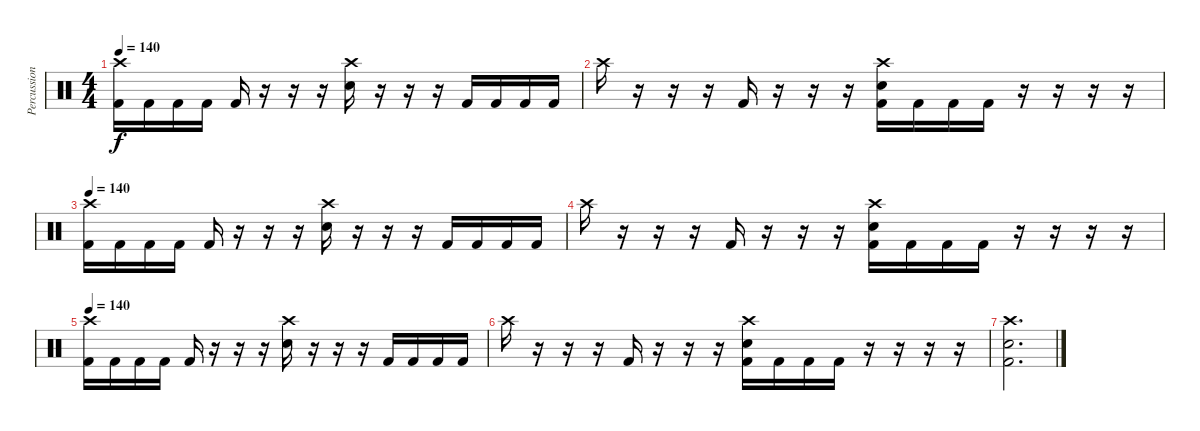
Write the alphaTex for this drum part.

\track ("Percussion" "Percussion") {instrument percussion}
\staff {score}
\articulation defaults
\ts (4 4)
\tempo 140
\clef neutral
\ks c
("Crash high (hit)" "Kick (hit) 2").16{dy f} "Kick (hit) 2".16 "Kick (hit) 2".16 "Kick (hit) 2".16 "Kick (hit) 2".16 r.16 r.16 r.16 ("Crash high (hit)" "Snare (hit) 2").16 r.16 r.16 r.16 "Kick (hit) 2".16 "Kick (hit) 2".16 "Kick (hit) 2".16 "Kick (hit) 2".16 |
"Crash high (hit)".16 r.16 r.16 r.16 "Kick (hit) 2".16 r.16 r.16 r.16 ("Crash high (hit)" "Snare (hit) 2" "Kick (hit) 2").16 "Kick (hit) 2".16 "Kick (hit) 2".16 "Kick (hit) 2".16 r.16 r.16 r.16 r.16 |
\tempo 140
("Crash high (hit)" "Kick (hit) 2").16 "Kick (hit) 2".16 "Kick (hit) 2".16 "Kick (hit) 2".16 "Kick (hit) 2".16 r.16 r.16 r.16 ("Crash high (hit)" "Snare (hit) 2").16 r.16 r.16 r.16 "Kick (hit) 2".16 "Kick (hit) 2".16 "Kick (hit) 2".16 "Kick (hit) 2".16 |
"Crash high (hit)".16 r.16 r.16 r.16 "Kick (hit) 2".16 r.16 r.16 r.16 ("Crash high (hit)" "Snare (hit) 2" "Kick (hit) 2").16 "Kick (hit) 2".16 "Kick (hit) 2".16 "Kick (hit) 2".16 r.16 r.16 r.16 r.16 |
\tempo 140
("Crash high (hit)" "Kick (hit) 2").16 "Kick (hit) 2".16 "Kick (hit) 2".16 "Kick (hit) 2".16 "Kick (hit) 2".16 r.16 r.16 r.16 ("Crash high (hit)" "Snare (hit) 2").16 r.16 r.16 r.16 "Kick (hit) 2".16 "Kick (hit) 2".16 "Kick (hit) 2".16 "Kick (hit) 2".16 |
"Crash high (hit)".16 r.16 r.16 r.16 "Kick (hit) 2".16 r.16 r.16 r.16 ("Crash high (hit)" "Snare (hit) 2" "Kick (hit) 2").16 "Kick (hit) 2".16 "Kick (hit) 2".16 "Kick (hit) 2".16 r.16 r.16 r.16 r.16 |
("Crash high (hit)" "Snare (hit) 2" "Kick (hit) 2").2{d}
